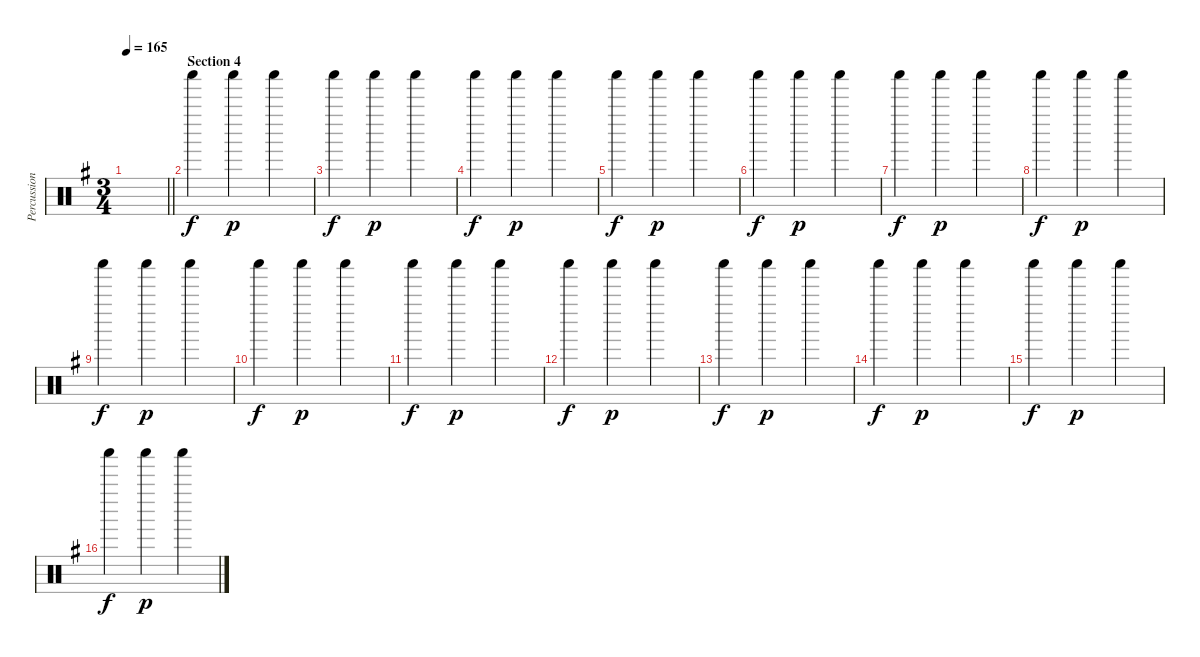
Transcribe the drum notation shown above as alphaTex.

\track ("Percussion" "Percussion") {instrument percussion}
\staff {score}
\articulation defaults
\ts (3 4)
\tempo 165
\clef neutral
\barLineRight lightlight
\ks g
|
\section ("" "Section 4")
"Shaker (hit)".4 "Shaker (hit)".4{dy p} "Shaker (hit)".4 |
"Shaker (hit)".4{dy f} "Shaker (hit)".4{dy p} "Shaker (hit)".4 |
"Shaker (hit)".4{dy f} "Shaker (hit)".4{dy p} "Shaker (hit)".4 |
"Shaker (hit)".4{dy f} "Shaker (hit)".4{dy p} "Shaker (hit)".4 |
"Shaker (hit)".4{dy f} "Shaker (hit)".4{dy p} "Shaker (hit)".4 |
"Shaker (hit)".4{dy f} "Shaker (hit)".4{dy p} "Shaker (hit)".4 |
"Shaker (hit)".4{dy f} "Shaker (hit)".4{dy p} "Shaker (hit)".4 |
"Shaker (hit)".4{dy f} "Shaker (hit)".4{dy p} "Shaker (hit)".4 |
"Shaker (hit)".4{dy f} "Shaker (hit)".4{dy p} "Shaker (hit)".4 |
"Shaker (hit)".4{dy f} "Shaker (hit)".4{dy p} "Shaker (hit)".4 |
"Shaker (hit)".4{dy f} "Shaker (hit)".4{dy p} "Shaker (hit)".4 |
"Shaker (hit)".4{dy f} "Shaker (hit)".4{dy p} "Shaker (hit)".4 |
"Shaker (hit)".4{dy f} "Shaker (hit)".4{dy p} "Shaker (hit)".4 |
"Shaker (hit)".4{dy f} "Shaker (hit)".4{dy p} "Shaker (hit)".4 |
"Shaker (hit)".4{dy f} "Shaker (hit)".4{dy p} "Shaker (hit)".4
